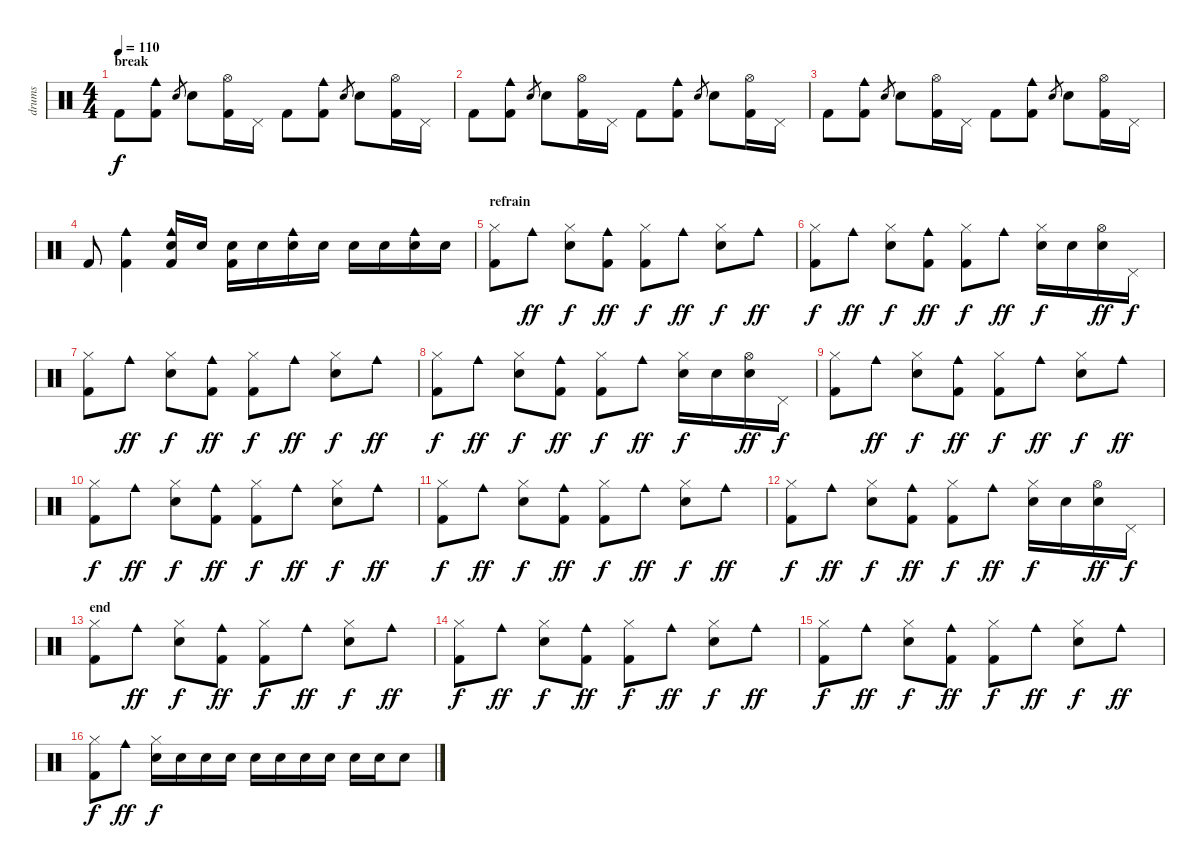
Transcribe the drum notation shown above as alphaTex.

\track ("drums" "drums") {instrument percussion}
\staff {score}
\articulation defaults
\ts (4 4)
\section ("" "break")
\tempo 110
\clef neutral
\ks aminor "Kick (hit) 2".8{dy f}
("Cowbell medium (hit)" "Kick (hit) 2").8 "Hand Clap (hit)".8{gr} "Hand Clap (hit)".8 ("Hi-Hat (open)" "Kick (hit) 2").16 "Pedal Hi-Hat (hit)".16 "Kick (hit) 2".8 ("Cowbell medium (hit)" "Kick (hit) 2").8 "Hand Clap (hit)".8{gr} "Hand Clap (hit)".8 ("Hi-Hat (open)" "Kick (hit) 2").16 "Pedal Hi-Hat (hit)".16 |
"Kick (hit) 2".8 ("Cowbell medium (hit)" "Kick (hit) 2").8 "Hand Clap (hit)".8{gr} "Hand Clap (hit)".8 ("Hi-Hat (open)" "Kick (hit) 2").16 "Pedal Hi-Hat (hit)".16 "Kick (hit) 2".8 ("Cowbell medium (hit)" "Kick (hit) 2").8 "Hand Clap (hit)".8{gr} "Hand Clap (hit)".8 ("Hi-Hat (open)" "Kick (hit) 2").16 "Pedal Hi-Hat (hit)".16 |
"Kick (hit) 2".8 ("Cowbell medium (hit)" "Kick (hit) 2").8 "Hand Clap (hit)".8{gr} "Hand Clap (hit)".8 ("Hi-Hat (open)" "Kick (hit) 2").16 "Pedal Hi-Hat (hit)".16 "Kick (hit) 2".8 ("Cowbell medium (hit)" "Kick (hit) 2").8 "Hand Clap (hit)".8{gr} "Hand Clap (hit)".8 ("Hi-Hat (open)" "Kick (hit) 2").16 "Pedal Hi-Hat (hit)".16 |
"Kick (hit) 2".8 ("Cowbell medium (hit)" "Kick (hit) 2").4 ("Cowbell medium (hit)" "Snare (hit) 2" "Kick (hit) 2").16 "Snare (hit) 2".16 ("Snare (hit) 2" "Kick (hit) 2").16 "Snare (hit) 2".16 ("Cowbell medium (hit)" "Snare (hit) 2").16 "Snare (hit) 2".16 "Snare (hit) 2".16 "Snare (hit) 2".16 ("Cowbell medium (hit)" "Snare (hit) 2").16 "Snare (hit) 2".16 |
\section ("" "refrain")
("Hi-Hat (closed)" "Kick (hit) 2").8 "Cowbell medium (hit)".8{dy ff} ("Hi-Hat (closed)" "Snare (hit) 2").8{dy f} ("Cowbell medium (hit)" "Kick (hit) 2").8{dy ff} ("Hi-Hat (closed)" "Kick (hit) 2").8{dy f} "Cowbell medium (hit)".8{dy ff} ("Hi-Hat (closed)" "Snare (hit) 2").8{dy f} "Cowbell medium (hit)".8{dy ff} |
("Hi-Hat (closed)" "Kick (hit) 2").8{dy f} "Cowbell medium (hit)".8{dy ff} ("Hi-Hat (closed)" "Snare (hit) 2").8{dy f} ("Cowbell medium (hit)" "Kick (hit) 2").8{dy ff} ("Hi-Hat (closed)" "Kick (hit) 2").8{dy f} "Cowbell medium (hit)".8{dy ff} ("Hi-Hat (closed)" "Snare (hit) 2").16{dy f} "Snare (hit) 2".16 ("Hi-Hat (open)" "Snare (hit) 2").16{dy ff} "Pedal Hi-Hat (hit)".16{dy f} |
("Hi-Hat (closed)" "Kick (hit) 2").8 "Cowbell medium (hit)".8{dy ff} ("Hi-Hat (closed)" "Snare (hit) 2").8{dy f} ("Cowbell medium (hit)" "Kick (hit) 2").8{dy ff} ("Hi-Hat (closed)" "Kick (hit) 2").8{dy f} "Cowbell medium (hit)".8{dy ff} ("Hi-Hat (closed)" "Snare (hit) 2").8{dy f} "Cowbell medium (hit)".8{dy ff} |
("Hi-Hat (closed)" "Kick (hit) 2").8{dy f} "Cowbell medium (hit)".8{dy ff} ("Hi-Hat (closed)" "Snare (hit) 2").8{dy f} ("Cowbell medium (hit)" "Kick (hit) 2").8{dy ff} ("Hi-Hat (closed)" "Kick (hit) 2").8{dy f} "Cowbell medium (hit)".8{dy ff} ("Hi-Hat (closed)" "Snare (hit) 2").16{dy f} "Snare (hit) 2".16 ("Hi-Hat (open)" "Snare (hit) 2").16{dy ff} "Pedal Hi-Hat (hit)".16{dy f} |
("Hi-Hat (closed)" "Kick (hit) 2").8 "Cowbell medium (hit)".8{dy ff} ("Hi-Hat (closed)" "Snare (hit) 2").8{dy f} ("Cowbell medium (hit)" "Kick (hit) 2").8{dy ff} ("Hi-Hat (closed)" "Kick (hit) 2").8{dy f} "Cowbell medium (hit)".8{dy ff} ("Hi-Hat (closed)" "Snare (hit) 2").8{dy f} "Cowbell medium (hit)".8{dy ff} |
("Hi-Hat (closed)" "Kick (hit) 2").8{dy f} "Cowbell medium (hit)".8{dy ff} ("Hi-Hat (closed)" "Snare (hit) 2").8{dy f} ("Cowbell medium (hit)" "Kick (hit) 2").8{dy ff} ("Hi-Hat (closed)" "Kick (hit) 2").8{dy f} "Cowbell medium (hit)".8{dy ff} ("Hi-Hat (closed)" "Snare (hit) 2").8{dy f} "Cowbell medium (hit)".8{dy ff} |
("Hi-Hat (closed)" "Kick (hit) 2").8{dy f} "Cowbell medium (hit)".8{dy ff} ("Hi-Hat (closed)" "Snare (hit) 2").8{dy f} ("Cowbell medium (hit)" "Kick (hit) 2").8{dy ff} ("Hi-Hat (closed)" "Kick (hit) 2").8{dy f} "Cowbell medium (hit)".8{dy ff} ("Hi-Hat (closed)" "Snare (hit) 2").8{dy f} "Cowbell medium (hit)".8{dy ff} |
("Hi-Hat (closed)" "Kick (hit) 2").8{dy f} "Cowbell medium (hit)".8{dy ff} ("Hi-Hat (closed)" "Snare (hit) 2").8{dy f} ("Cowbell medium (hit)" "Kick (hit) 2").8{dy ff} ("Hi-Hat (closed)" "Kick (hit) 2").8{dy f} "Cowbell medium (hit)".8{dy ff} ("Hi-Hat (closed)" "Snare (hit) 2").16{dy f} "Snare (hit) 2".16 ("Hi-Hat (open)" "Snare (hit) 2").16{dy ff} "Pedal Hi-Hat (hit)".16{dy f} |
\section ("" "end")
("Hi-Hat (closed)" "Kick (hit) 2").8 "Cowbell medium (hit)".8{dy ff} ("Hi-Hat (closed)" "Snare (hit) 2").8{dy f} ("Cowbell medium (hit)" "Kick (hit) 2").8{dy ff} ("Hi-Hat (closed)" "Kick (hit) 2").8{dy f} "Cowbell medium (hit)".8{dy ff} ("Hi-Hat (closed)" "Snare (hit) 2").8{dy f} "Cowbell medium (hit)".8{dy ff} |
("Hi-Hat (closed)" "Kick (hit) 2").8{dy f} "Cowbell medium (hit)".8{dy ff} ("Hi-Hat (closed)" "Snare (hit) 2").8{dy f} ("Cowbell medium (hit)" "Kick (hit) 2").8{dy ff} ("Hi-Hat (closed)" "Kick (hit) 2").8{dy f} "Cowbell medium (hit)".8{dy ff} ("Hi-Hat (closed)" "Snare (hit) 2").8{dy f} "Cowbell medium (hit)".8{dy ff} |
("Hi-Hat (closed)" "Kick (hit) 2").8{dy f} "Cowbell medium (hit)".8{dy ff} ("Hi-Hat (closed)" "Snare (hit) 2").8{dy f} ("Cowbell medium (hit)" "Kick (hit) 2").8{dy ff} ("Hi-Hat (closed)" "Kick (hit) 2").8{dy f} "Cowbell medium (hit)".8{dy ff} ("Hi-Hat (closed)" "Snare (hit) 2").8{dy f} "Cowbell medium (hit)".8{dy ff} |
("Hi-Hat (closed)" "Kick (hit) 2").8{dy f} "Cowbell medium (hit)".8{dy ff} ("Hi-Hat (closed)" "Snare (hit) 2").16{dy f} "Snare (hit) 2".16 "Snare (hit) 2".16 "Snare (hit) 2".16 "Snare (hit) 2".16 "Snare (hit) 2".16 "Snare (hit) 2".16 "Snare (hit) 2".16 "Snare (hit) 2".16 "Snare (hit) 2".16 "Snare (hit) 2".8
